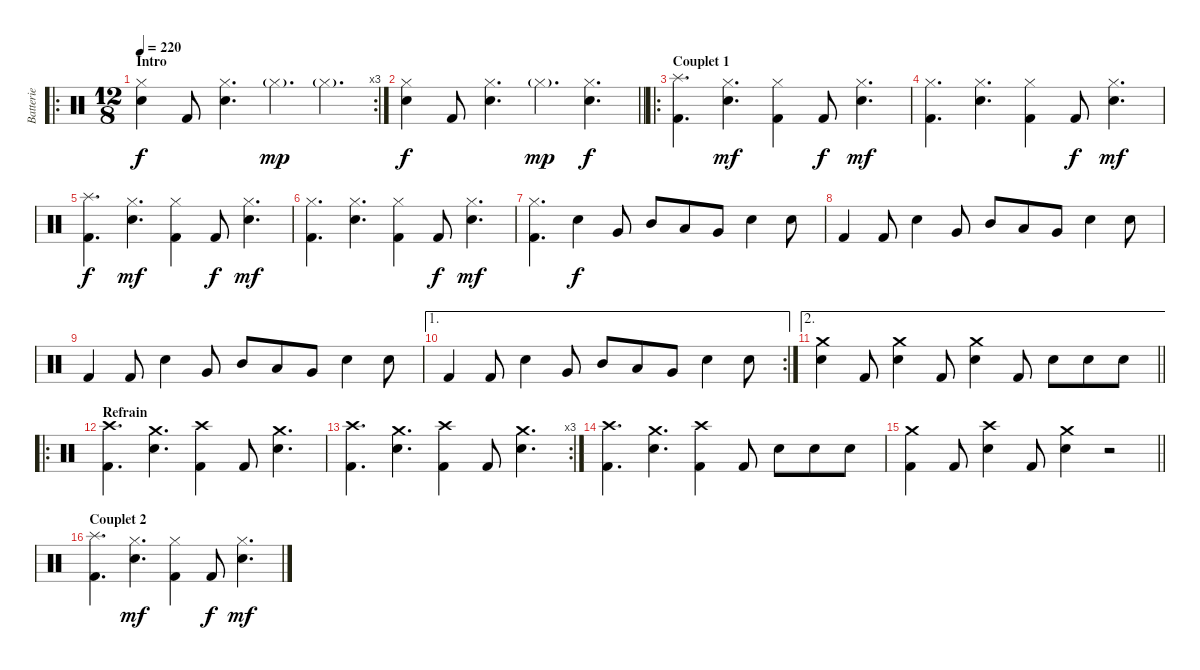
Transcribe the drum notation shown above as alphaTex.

\track ("Batterie" "Batterie") {instrument percussion}
\staff {score}
\articulation defaults
\ro
\rc 3
\ts (12 8)
\section ("" "Intro")
\tempo 220
\clef neutral
\ks c
("Hi-Hat (closed)" "Electric Snare (hit)").4{dy f} "Kick (hit) 2".8 ("Hi-Hat (closed)" "Electric Snare (hit)").4{d} "Hi-Hat (closed)"{g}.4{d dy mp} "Hi-Hat (closed)"{g}.4{d} |
\barLineRight lightlight
("Hi-Hat (closed)" "Electric Snare (hit)").4{dy f} "Kick (hit) 2".8 ("Hi-Hat (closed)" "Electric Snare (hit)").4{d} "Hi-Hat (closed)"{g}.4{d dy mp} ("Hi-Hat (closed)" "Electric Snare (hit)").4{d dy f} |
\ro
\section ("" "Couplet 1")
("Splash (hit)" "Kick (hit) 2").4{d} ("Hi-Hat (closed)" "Electric Snare (hit)").4{d dy mf} ("Hi-Hat (closed)" "Kick (hit) 2").4 "Kick (hit) 2".8{dy f} ("Hi-Hat (closed)" "Electric Snare (hit)").4{d dy mf} |
("Hi-Hat (closed)" "Kick (hit) 2").4{d} ("Hi-Hat (closed)" "Electric Snare (hit)").4{d} ("Hi-Hat (closed)" "Kick (hit) 2").4 "Kick (hit) 2".8{dy f} ("Hi-Hat (closed)" "Electric Snare (hit)").4{d dy mf} |
("Splash (hit)" "Kick (hit) 2").4{d dy f} ("Hi-Hat (closed)" "Electric Snare (hit)").4{d dy mf} ("Hi-Hat (closed)" "Kick (hit) 2").4 "Kick (hit) 2".8{dy f} ("Hi-Hat (closed)" "Electric Snare (hit)").4{d dy mf} |
("Hi-Hat (closed)" "Kick (hit) 2").4{d} ("Hi-Hat (closed)" "Electric Snare (hit)").4{d} ("Hi-Hat (closed)" "Kick (hit) 2").4 "Kick (hit) 2".8{dy f} ("Hi-Hat (closed)" "Electric Snare (hit)").4{d dy mf} |
("Hi-Hat (closed)" "Kick (hit) 2").4{d} "Electric Snare (hit)".4{dy f} "Very Low Tom (hit)".8 "Mid Tom (hit)".8 "Low Tom (hit)".8 "Very Low Tom (hit)".8 "Electric Snare (hit)".4 "Electric Snare (hit)".8 |
"Kick (hit) 2".4 "Kick (hit) 2".8 "Electric Snare (hit)".4 "Very Low Tom (hit)".8 "Mid Tom (hit)".8 "Low Tom (hit)".8 "Very Low Tom (hit)".8 "Electric Snare (hit)".4 "Electric Snare (hit)".8 |
"Kick (hit) 2".4 "Kick (hit) 2".8 "Electric Snare (hit)".4 "Very Low Tom (hit)".8 "Mid Tom (hit)".8 "Low Tom (hit)".8 "Very Low Tom (hit)".8 "Electric Snare (hit)".4 "Electric Snare (hit)".8 |
\ae 1
\rc 2 "Kick (hit) 2".4 "Kick (hit) 2".8 "Electric Snare (hit)".4 "Very Low Tom (hit)".8 "Mid Tom (hit)".8 "Low Tom (hit)".8 "Very Low Tom (hit)".8 "Electric Snare (hit)".4 "Electric Snare (hit)".8
|
\ae 2
\barLineRight lightlight
("Crash medium (hit)" "Electric Snare (hit)").4 "Kick (hit) 2".8 ("Crash medium (hit)" "Electric Snare (hit)").4 "Kick (hit) 2".8 ("Crash medium (hit)" "Electric Snare (hit)").4 "Kick (hit) 2".8 "Electric Snare (hit)".8 "Electric Snare (hit)".8 "Electric Snare (hit)".8 |
\ro
\section ("" "Refrain")
("Crash high (hit)" "Kick (hit) 2").4{d} ("Crash medium (hit)" "Electric Snare (hit)").4{d} ("Crash high (hit)" "Kick (hit) 2").4 "Kick (hit) 2".8 ("Crash medium (hit)" "Electric Snare (hit)").4{d} |
\rc 3
("Crash high (hit)" "Kick (hit) 2").4{d} ("Crash medium (hit)" "Electric Snare (hit)").4{d} ("Crash high (hit)" "Kick (hit) 2").4 "Kick (hit) 2".8 ("Crash medium (hit)" "Electric Snare (hit)").4{d} |
("Crash high (hit)" "Kick (hit) 2").4{d} ("Crash medium (hit)" "Electric Snare (hit)").4{d} ("Crash high (hit)" "Kick (hit) 2").4 "Kick (hit) 2".8 "Electric Snare (hit)".8 "Electric Snare (hit)".8 "Electric Snare (hit)".8 |
\barLineRight lightlight
("Crash medium (hit)" "Kick (hit) 2").4 "Kick (hit) 2".8 ("Crash high (hit)" "Electric Snare (hit)").4 "Kick (hit) 2".8 ("Crash medium (hit)" "Electric Snare (hit)").4 r.2 |
\section ("" "Couplet 2")
("Splash (hit)" "Kick (hit) 2").4{d} ("Hi-Hat (closed)" "Electric Snare (hit)").4{d dy mf} ("Hi-Hat (closed)" "Kick (hit) 2").4 "Kick (hit) 2".8{dy f} ("Hi-Hat (closed)" "Electric Snare (hit)").4{d dy mf}
